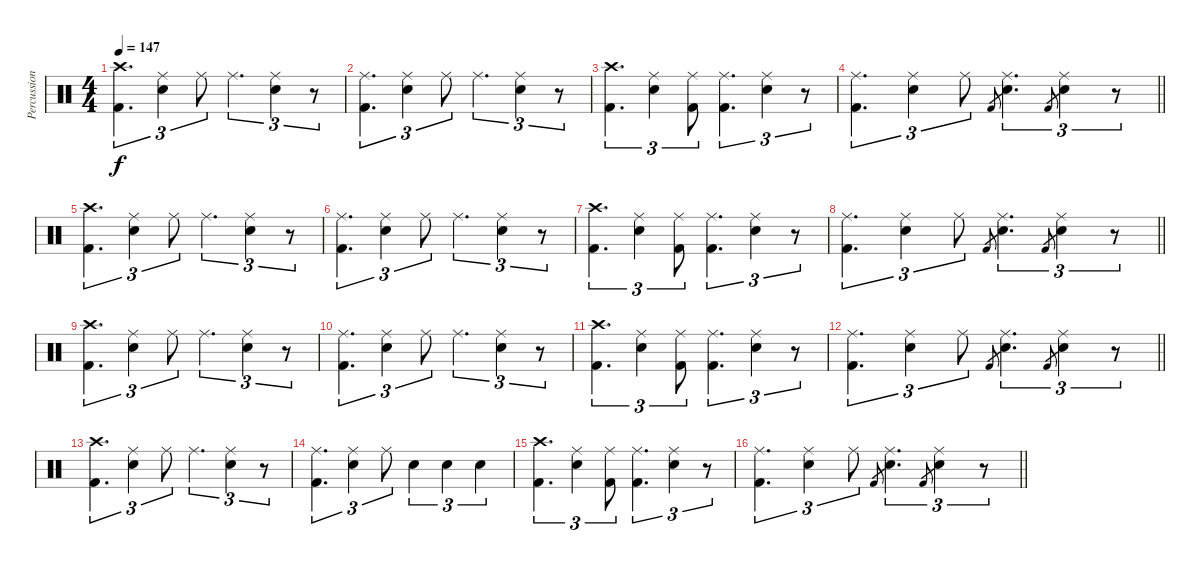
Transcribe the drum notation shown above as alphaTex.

\track ("Percussion" "Percussion") {instrument percussion}
\staff {score}
\articulation defaults
\ts (4 4)
\tempo 147
\clef neutral
\ks c
("Crash high (hit)" "Kick (hit) 2").4{d tu (3 2) dy f} ("Ride (middle)" "Electric Snare (hit)").4{tu (3 2)} "Ride (middle)".8{tu (3 2)} "Ride (middle)".4{d tu (3 2)} ("Ride (middle)" "Electric Snare (hit)").4{tu (3 2)} r.8{tu (3 2)} |
("Ride (middle)" "Kick (hit) 2").4{d tu (3 2)} ("Ride (middle)" "Electric Snare (hit)").4{tu (3 2)} "Ride (middle)".8{tu (3 2)} "Ride (middle)".4{d tu (3 2)} ("Ride (middle)" "Electric Snare (hit)").4{tu (3 2)} r.8{tu (3 2)} |
("Crash high (hit)" "Kick (hit) 2").4{d tu (3 2)} ("Ride (middle)" "Electric Snare (hit)").4{tu (3 2)} ("Ride (middle)" "Kick (hit) 2").8{tu (3 2)} ("Ride (middle)" "Kick (hit) 2").4{d tu (3 2)} ("Ride (middle)" "Electric Snare (hit)").4{tu (3 2)} r.8{tu (3 2)} |
\barLineRight lightlight
("Ride (middle)" "Kick (hit) 2").4{d tu (3 2)} ("Ride (middle)" "Electric Snare (hit)").4{tu (3 2)} "Ride (middle)".8{tu (3 2)} "Kick (hit) 2".8{gr} ("Ride (middle)" "Electric Snare (hit)").4{d tu (3 2)} "Kick (hit) 2".8{gr} ("Ride (middle)" "Electric Snare (hit)").4{tu (3 2)} r.8{tu (3 2)} |
("Crash high (hit)" "Kick (hit) 2").4{d tu (3 2)} ("Ride (middle)" "Electric Snare (hit)").4{tu (3 2)} "Ride (middle)".8{tu (3 2)} "Ride (middle)".4{d tu (3 2)} ("Ride (middle)" "Electric Snare (hit)").4{tu (3 2)} r.8{tu (3 2)} |
("Ride (middle)" "Kick (hit) 2").4{d tu (3 2)} ("Ride (middle)" "Electric Snare (hit)").4{tu (3 2)} "Ride (middle)".8{tu (3 2)} "Ride (middle)".4{d tu (3 2)} ("Ride (middle)" "Electric Snare (hit)").4{tu (3 2)} r.8{tu (3 2)} |
("Crash high (hit)" "Kick (hit) 2").4{d tu (3 2)} ("Ride (middle)" "Electric Snare (hit)").4{tu (3 2)} ("Ride (middle)" "Kick (hit) 2").8{tu (3 2)} ("Ride (middle)" "Kick (hit) 2").4{d tu (3 2)} ("Ride (middle)" "Electric Snare (hit)").4{tu (3 2)} r.8{tu (3 2)} |
\barLineRight lightlight
("Ride (middle)" "Kick (hit) 2").4{d tu (3 2)} ("Ride (middle)" "Electric Snare (hit)").4{tu (3 2)} "Ride (middle)".8{tu (3 2)} "Kick (hit) 2".8{gr} ("Ride (middle)" "Electric Snare (hit)").4{d tu (3 2)} "Kick (hit) 2".8{gr} ("Ride (middle)" "Electric Snare (hit)").4{tu (3 2)} r.8{tu (3 2)} |
("Crash high (hit)" "Kick (hit) 2").4{d tu (3 2)} ("Ride (middle)" "Electric Snare (hit)").4{tu (3 2)} "Ride (middle)".8{tu (3 2)} "Ride (middle)".4{d tu (3 2)} ("Ride (middle)" "Electric Snare (hit)").4{tu (3 2)} r.8{tu (3 2)} |
("Ride (middle)" "Kick (hit) 2").4{d tu (3 2)} ("Ride (middle)" "Electric Snare (hit)").4{tu (3 2)} "Ride (middle)".8{tu (3 2)} "Ride (middle)".4{d tu (3 2)} ("Ride (middle)" "Electric Snare (hit)").4{tu (3 2)} r.8{tu (3 2)} |
("Crash high (hit)" "Kick (hit) 2").4{d tu (3 2)} ("Ride (middle)" "Electric Snare (hit)").4{tu (3 2)} ("Ride (middle)" "Kick (hit) 2").8{tu (3 2)} ("Ride (middle)" "Kick (hit) 2").4{d tu (3 2)} ("Ride (middle)" "Electric Snare (hit)").4{tu (3 2)} r.8{tu (3 2)} |
\barLineRight lightlight
("Ride (middle)" "Kick (hit) 2").4{d tu (3 2)} ("Ride (middle)" "Electric Snare (hit)").4{tu (3 2)} "Ride (middle)".8{tu (3 2)} "Kick (hit) 2".8{gr} ("Ride (middle)" "Electric Snare (hit)").4{d tu (3 2)} "Kick (hit) 2".8{gr} ("Ride (middle)" "Electric Snare (hit)").4{tu (3 2)} r.8{tu (3 2)} |
("Crash high (hit)" "Kick (hit) 2").4{d tu (3 2)} ("Ride (middle)" "Electric Snare (hit)").4{tu (3 2)} "Ride (middle)".8{tu (3 2)} "Ride (middle)".4{d tu (3 2)} ("Ride (middle)" "Electric Snare (hit)").4{tu (3 2)} r.8{tu (3 2)} |
("Ride (middle)" "Kick (hit) 2").4{d tu (3 2)} ("Ride (middle)" "Electric Snare (hit)").4{tu (3 2)} "Ride (middle)".8{tu (3 2)} "Electric Snare (hit)".4{tu (3 2)} "Electric Snare (hit)".4{tu (3 2)} "Electric Snare (hit)".4{tu (3 2)} |
("Crash high (hit)" "Kick (hit) 2").4{d tu (3 2)} ("Ride (middle)" "Electric Snare (hit)").4{tu (3 2)} ("Ride (middle)" "Kick (hit) 2").8{tu (3 2)} ("Ride (middle)" "Kick (hit) 2").4{d tu (3 2)} ("Ride (middle)" "Electric Snare (hit)").4{tu (3 2)} r.8{tu (3 2)} |
\barLineRight lightlight
("Ride (middle)" "Kick (hit) 2").4{d tu (3 2)} ("Ride (middle)" "Electric Snare (hit)").4{tu (3 2)} "Ride (middle)".8{tu (3 2)} "Kick (hit) 2".8{gr} ("Ride (middle)" "Electric Snare (hit)").4{d tu (3 2)} "Kick (hit) 2".8{gr} ("Ride (middle)" "Electric Snare (hit)").4{tu (3 2)} r.8{tu (3 2)}
